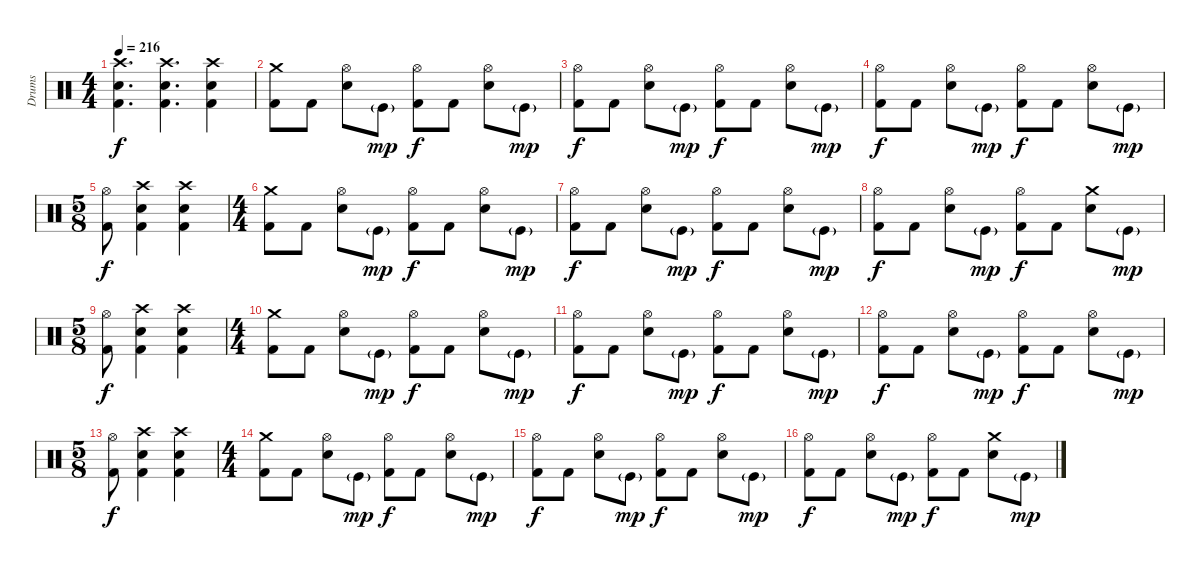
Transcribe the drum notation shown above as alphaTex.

\track ("Drums" "Drums") {instrument percussion}
\staff {score}
\articulation defaults
\ts (4 4)
\tempo 216
\clef neutral
\ks c
("Crash high (hit)" "Snare (hit) 2" "Kick (hit) 2").4{d dy f} ("Crash high (hit)" "Snare (hit) 2" "Kick (hit) 2").4{d} ("Crash high (hit)" "Snare (hit) 2" "Kick (hit) 2").4 |
("Crash medium (hit)" "Kick (hit) 2").8 "Kick (hit) 2".8 ("Hi-Hat (open)" "Snare (hit) 2").8 "Kick (hit)"{g}.8{dy mp} ("Hi-Hat (open)" "Kick (hit) 2").8{dy f} "Kick (hit) 2".8 ("Hi-Hat (open)" "Snare (hit) 2").8 "Kick (hit)"{g}.8{dy mp} |
("Hi-Hat (open)" "Kick (hit) 2").8{dy f} "Kick (hit) 2".8 ("Hi-Hat (open)" "Snare (hit) 2").8 "Kick (hit)"{g}.8{dy mp} ("Hi-Hat (open)" "Kick (hit) 2").8{dy f} "Kick (hit) 2".8 ("Hi-Hat (open)" "Snare (hit) 2").8 "Kick (hit)"{g}.8{dy mp} |
("Hi-Hat (open)" "Kick (hit) 2").8{dy f} "Kick (hit) 2".8 ("Hi-Hat (open)" "Snare (hit) 2").8 "Kick (hit)"{g}.8{dy mp} ("Hi-Hat (open)" "Kick (hit) 2").8{dy f} "Kick (hit) 2".8 ("Hi-Hat (open)" "Snare (hit) 2").8 "Kick (hit)"{g}.8{dy mp} |
\ts (5 8)
("Hi-Hat (open)" "Kick (hit) 2").8{dy f} ("Crash high (hit)" "Snare (hit) 2" "Kick (hit) 2").4 ("Crash high (hit)" "Snare (hit) 2" "Kick (hit) 2").4 |
\ts (4 4)
("Crash medium (hit)" "Kick (hit) 2").8 "Kick (hit) 2".8 ("Hi-Hat (open)" "Snare (hit) 2").8 "Kick (hit)"{g}.8{dy mp} ("Hi-Hat (open)" "Kick (hit) 2").8{dy f} "Kick (hit) 2".8 ("Hi-Hat (open)" "Snare (hit) 2").8 "Kick (hit)"{g}.8{dy mp} |
("Hi-Hat (open)" "Kick (hit) 2").8{dy f} "Kick (hit) 2".8 ("Hi-Hat (open)" "Snare (hit) 2").8 "Kick (hit)"{g}.8{dy mp} ("Hi-Hat (open)" "Kick (hit) 2").8{dy f} "Kick (hit) 2".8 ("Hi-Hat (open)" "Snare (hit) 2").8 "Kick (hit)"{g}.8{dy mp} |
("Hi-Hat (open)" "Kick (hit) 2").8{dy f} "Kick (hit) 2".8 ("Hi-Hat (open)" "Snare (hit) 2").8 "Kick (hit)"{g}.8{dy mp} ("Hi-Hat (open)" "Kick (hit) 2").8{dy f} "Kick (hit) 2".8 ("Crash medium (hit)" "Snare (hit) 2").8 "Kick (hit)"{g}.8{dy mp} |
\ts (5 8)
("Hi-Hat (open)" "Kick (hit) 2").8{dy f} ("Crash high (hit)" "Snare (hit) 2" "Kick (hit) 2").4 ("Crash high (hit)" "Snare (hit) 2" "Kick (hit) 2").4 |
\ts (4 4)
("Crash medium (hit)" "Kick (hit) 2").8 "Kick (hit) 2".8 ("Hi-Hat (open)" "Snare (hit) 2").8 "Kick (hit)"{g}.8{dy mp} ("Hi-Hat (open)" "Kick (hit) 2").8{dy f} "Kick (hit) 2".8 ("Hi-Hat (open)" "Snare (hit) 2").8 "Kick (hit)"{g}.8{dy mp} |
("Hi-Hat (open)" "Kick (hit) 2").8{dy f} "Kick (hit) 2".8 ("Hi-Hat (open)" "Snare (hit) 2").8 "Kick (hit)"{g}.8{dy mp} ("Hi-Hat (open)" "Kick (hit) 2").8{dy f} "Kick (hit) 2".8 ("Hi-Hat (open)" "Snare (hit) 2").8 "Kick (hit)"{g}.8{dy mp} |
("Hi-Hat (open)" "Kick (hit) 2").8{dy f} "Kick (hit) 2".8 ("Hi-Hat (open)" "Snare (hit) 2").8 "Kick (hit)"{g}.8{dy mp} ("Hi-Hat (open)" "Kick (hit) 2").8{dy f} "Kick (hit) 2".8 ("Hi-Hat (open)" "Snare (hit) 2").8 "Kick (hit)"{g}.8{dy mp} |
\ts (5 8)
("Hi-Hat (open)" "Kick (hit) 2").8{dy f} ("Crash high (hit)" "Snare (hit) 2" "Kick (hit) 2").4 ("Crash high (hit)" "Snare (hit) 2" "Kick (hit) 2").4 |
\ts (4 4)
("Crash medium (hit)" "Kick (hit) 2").8 "Kick (hit) 2".8 ("Hi-Hat (open)" "Snare (hit) 2").8 "Kick (hit)"{g}.8{dy mp} ("Hi-Hat (open)" "Kick (hit) 2").8{dy f} "Kick (hit) 2".8 ("Hi-Hat (open)" "Snare (hit) 2").8 "Kick (hit)"{g}.8{dy mp} |
("Hi-Hat (open)" "Kick (hit) 2").8{dy f} "Kick (hit) 2".8 ("Hi-Hat (open)" "Snare (hit) 2").8 "Kick (hit)"{g}.8{dy mp} ("Hi-Hat (open)" "Kick (hit) 2").8{dy f} "Kick (hit) 2".8 ("Hi-Hat (open)" "Snare (hit) 2").8 "Kick (hit)"{g}.8{dy mp} |
("Hi-Hat (open)" "Kick (hit) 2").8{dy f} "Kick (hit) 2".8 ("Hi-Hat (open)" "Snare (hit) 2").8 "Kick (hit)"{g}.8{dy mp} ("Hi-Hat (open)" "Kick (hit) 2").8{dy f} "Kick (hit) 2".8 ("Crash medium (hit)" "Snare (hit) 2").8 "Kick (hit)"{g}.8{dy mp}
